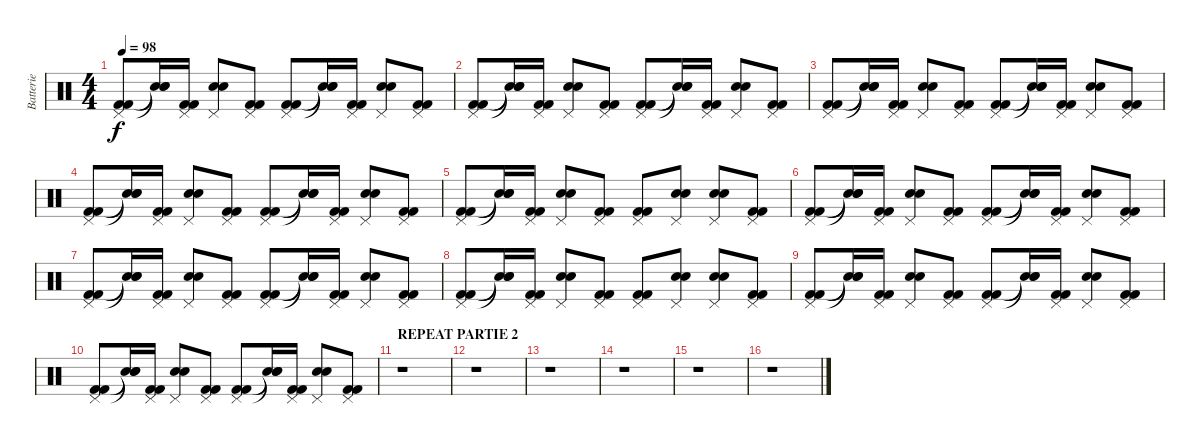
\track ("Batterie" "Batterie") {instrument percussion}
\staff {score}
\articulation defaults
\ts (4 4)
\tempo 98
\clef neutral
\ks c
("Pedal Hi-Hat (hit)" "Kick (hit) 2" "Kick (hit) 2").8{dy f} ("Snare (hit)"{t} "Snare (hit)"{t} "Snare (hit)"{t}).16 ("Pedal Hi-Hat (hit)" "Kick (hit) 2" "Kick (hit) 2").16 ("Pedal Hi-Hat (hit)" "Electric Snare (hit)" "Electric Snare (hit)").8 ("Pedal Hi-Hat (hit)" "Kick (hit) 2" "Kick (hit) 2").8 ("Pedal Hi-Hat (hit)" "Kick (hit) 2" "Kick (hit) 2").8 ("Snare (hit)"{t} "Snare (hit)"{t} "Snare (hit)"{t}).16 ("Pedal Hi-Hat (hit)" "Kick (hit) 2" "Kick (hit) 2").16 ("Pedal Hi-Hat (hit)" "Electric Snare (hit)" "Electric Snare (hit)").8 ("Pedal Hi-Hat (hit)" "Kick (hit) 2" "Kick (hit) 2").8 |
("Pedal Hi-Hat (hit)" "Kick (hit) 2" "Kick (hit) 2").8 ("Snare (hit)"{t} "Snare (hit)"{t} "Snare (hit)"{t}).16 ("Pedal Hi-Hat (hit)" "Kick (hit) 2" "Kick (hit) 2").16 ("Pedal Hi-Hat (hit)" "Electric Snare (hit)" "Electric Snare (hit)").8 ("Pedal Hi-Hat (hit)" "Kick (hit) 2" "Kick (hit) 2").8 ("Pedal Hi-Hat (hit)" "Kick (hit) 2" "Kick (hit) 2").8 ("Snare (hit)"{t} "Snare (hit)"{t} "Snare (hit)"{t}).16 ("Pedal Hi-Hat (hit)" "Kick (hit) 2" "Kick (hit) 2").16 ("Pedal Hi-Hat (hit)" "Electric Snare (hit)" "Electric Snare (hit)").8 ("Pedal Hi-Hat (hit)" "Kick (hit) 2" "Kick (hit) 2").8 |
("Pedal Hi-Hat (hit)" "Kick (hit) 2" "Kick (hit) 2").8 ("Snare (hit)"{t} "Snare (hit)"{t} "Snare (hit)"{t}).16 ("Pedal Hi-Hat (hit)" "Kick (hit) 2" "Kick (hit) 2").16 ("Pedal Hi-Hat (hit)" "Electric Snare (hit)" "Electric Snare (hit)").8 ("Pedal Hi-Hat (hit)" "Kick (hit) 2" "Kick (hit) 2").8 ("Pedal Hi-Hat (hit)" "Kick (hit) 2" "Kick (hit) 2").8 ("Snare (hit)"{t} "Snare (hit)"{t} "Snare (hit)"{t}).16 ("Pedal Hi-Hat (hit)" "Kick (hit) 2" "Kick (hit) 2").16 ("Pedal Hi-Hat (hit)" "Electric Snare (hit)" "Electric Snare (hit)").8 ("Pedal Hi-Hat (hit)" "Kick (hit) 2" "Kick (hit) 2").8 |
("Pedal Hi-Hat (hit)" "Kick (hit) 2" "Kick (hit) 2").8 ("Snare (hit)"{t} "Snare (hit)"{t} "Snare (hit)"{t}).16 ("Pedal Hi-Hat (hit)" "Kick (hit) 2" "Kick (hit) 2").16 ("Pedal Hi-Hat (hit)" "Electric Snare (hit)" "Electric Snare (hit)").8 ("Pedal Hi-Hat (hit)" "Kick (hit) 2" "Kick (hit) 2").8 ("Pedal Hi-Hat (hit)" "Kick (hit) 2" "Kick (hit) 2").8 ("Snare (hit)"{t} "Snare (hit)"{t} "Snare (hit)"{t}).16 ("Pedal Hi-Hat (hit)" "Kick (hit) 2" "Kick (hit) 2").16 ("Pedal Hi-Hat (hit)" "Electric Snare (hit)" "Electric Snare (hit)").8 ("Pedal Hi-Hat (hit)" "Kick (hit) 2" "Kick (hit) 2").8 |
("Pedal Hi-Hat (hit)" "Kick (hit) 2" "Kick (hit) 2").8 ("Snare (hit)"{t} "Snare (hit)"{t} "Snare (hit)"{t}).16 ("Pedal Hi-Hat (hit)" "Kick (hit) 2" "Kick (hit) 2").16 ("Pedal Hi-Hat (hit)" "Electric Snare (hit)" "Electric Snare (hit)").8 ("Pedal Hi-Hat (hit)" "Kick (hit) 2" "Kick (hit) 2").8 ("Pedal Hi-Hat (hit)" "Kick (hit) 2" "Kick (hit) 2").8 ("Pedal Hi-Hat (hit)" "Electric Snare (hit)" "Electric Snare (hit)").8 ("Pedal Hi-Hat (hit)" "Electric Snare (hit)" "Electric Snare (hit)").8 ("Pedal Hi-Hat (hit)" "Kick (hit) 2" "Kick (hit) 2").8 |
("Pedal Hi-Hat (hit)" "Kick (hit) 2" "Kick (hit) 2").8 ("Snare (hit)"{t} "Snare (hit)"{t} "Snare (hit)"{t}).16 ("Pedal Hi-Hat (hit)" "Kick (hit) 2" "Kick (hit) 2").16 ("Pedal Hi-Hat (hit)" "Electric Snare (hit)" "Electric Snare (hit)").8 ("Pedal Hi-Hat (hit)" "Kick (hit) 2" "Kick (hit) 2").8 ("Pedal Hi-Hat (hit)" "Kick (hit) 2" "Kick (hit) 2").8 ("Snare (hit)"{t} "Snare (hit)"{t} "Snare (hit)"{t}).16 ("Pedal Hi-Hat (hit)" "Kick (hit) 2" "Kick (hit) 2").16 ("Pedal Hi-Hat (hit)" "Electric Snare (hit)" "Electric Snare (hit)").8 ("Pedal Hi-Hat (hit)" "Kick (hit) 2" "Kick (hit) 2").8 |
("Pedal Hi-Hat (hit)" "Kick (hit) 2" "Kick (hit) 2").8 ("Snare (hit)"{t} "Snare (hit)"{t} "Snare (hit)"{t}).16 ("Pedal Hi-Hat (hit)" "Kick (hit) 2" "Kick (hit) 2").16 ("Pedal Hi-Hat (hit)" "Electric Snare (hit)" "Electric Snare (hit)").8 ("Pedal Hi-Hat (hit)" "Kick (hit) 2" "Kick (hit) 2").8 ("Pedal Hi-Hat (hit)" "Kick (hit) 2" "Kick (hit) 2").8 ("Snare (hit)"{t} "Snare (hit)"{t} "Snare (hit)"{t}).16 ("Pedal Hi-Hat (hit)" "Kick (hit) 2" "Kick (hit) 2").16 ("Pedal Hi-Hat (hit)" "Electric Snare (hit)" "Electric Snare (hit)").8 ("Pedal Hi-Hat (hit)" "Kick (hit) 2" "Kick (hit) 2").8 |
("Pedal Hi-Hat (hit)" "Kick (hit) 2" "Kick (hit) 2").8 ("Snare (hit)"{t} "Snare (hit)"{t} "Snare (hit)"{t}).16 ("Pedal Hi-Hat (hit)" "Kick (hit) 2" "Kick (hit) 2").16 ("Pedal Hi-Hat (hit)" "Electric Snare (hit)" "Electric Snare (hit)").8 ("Pedal Hi-Hat (hit)" "Kick (hit) 2" "Kick (hit) 2").8 ("Pedal Hi-Hat (hit)" "Kick (hit) 2" "Kick (hit) 2").8 ("Pedal Hi-Hat (hit)" "Electric Snare (hit)" "Electric Snare (hit)").8 ("Pedal Hi-Hat (hit)" "Electric Snare (hit)" "Electric Snare (hit)").8 ("Pedal Hi-Hat (hit)" "Kick (hit) 2" "Kick (hit) 2").8 |
("Pedal Hi-Hat (hit)" "Kick (hit) 2" "Kick (hit) 2").8 ("Snare (hit)"{t} "Snare (hit)"{t} "Snare (hit)"{t}).16 ("Pedal Hi-Hat (hit)" "Kick (hit) 2" "Kick (hit) 2").16 ("Pedal Hi-Hat (hit)" "Electric Snare (hit)" "Electric Snare (hit)").8 ("Pedal Hi-Hat (hit)" "Kick (hit) 2" "Kick (hit) 2").8 ("Pedal Hi-Hat (hit)" "Kick (hit) 2" "Kick (hit) 2").8 ("Snare (hit)"{t} "Snare (hit)"{t} "Snare (hit)"{t}).16 ("Pedal Hi-Hat (hit)" "Kick (hit) 2" "Kick (hit) 2").16 ("Pedal Hi-Hat (hit)" "Electric Snare (hit)" "Electric Snare (hit)").8 ("Pedal Hi-Hat (hit)" "Kick (hit) 2" "Kick (hit) 2").8 |
("Pedal Hi-Hat (hit)" "Kick (hit) 2" "Kick (hit) 2").8 ("Snare (hit)"{t} "Snare (hit)"{t} "Snare (hit)"{t}).16 ("Pedal Hi-Hat (hit)" "Kick (hit) 2" "Kick (hit) 2").16 ("Pedal Hi-Hat (hit)" "Electric Snare (hit)" "Electric Snare (hit)").8 ("Pedal Hi-Hat (hit)" "Kick (hit) 2" "Kick (hit) 2").8 ("Pedal Hi-Hat (hit)" "Kick (hit) 2" "Kick (hit) 2").8 ("Snare (hit)"{t} "Snare (hit)"{t} "Snare (hit)"{t}).16 ("Pedal Hi-Hat (hit)" "Kick (hit) 2" "Kick (hit) 2").16 ("Pedal Hi-Hat (hit)" "Electric Snare (hit)" "Electric Snare (hit)").8 ("Pedal Hi-Hat (hit)" "Kick (hit) 2" "Kick (hit) 2").8 |
\section ("" "REPEAT PARTIE 2")
r.1 |
r.1 |
r.1 |
r.1 |
r.1 |
r.1
